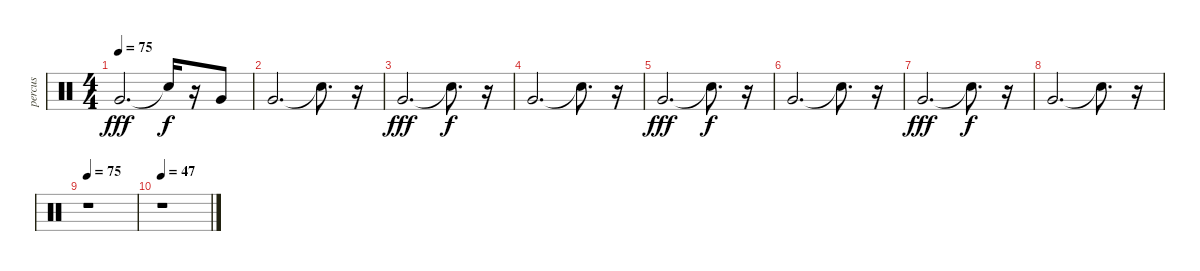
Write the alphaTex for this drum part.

\track ("percus" "percus") {instrument percussion}
\staff {score}
\articulation defaults
\ts (4 4)
\tempo 75
\clef neutral
\ks c "Very Low Tom (hit)".2{d dy fff} "Snare (hit)"{t}.16{dy f}
r.16 "Very Low Tom (hit)".8 |
"Very Low Tom (hit)".2{d} "Snare (hit)"{t}.8{d} r.16 |
"Very Low Tom (hit)".2{d dy fff} "Snare (hit)"{t}.8{d dy f} r.16 |
"Very Low Tom (hit)".2{d} "Snare (hit)"{t}.8{d} r.16 |
"Very Low Tom (hit)".2{d dy fff} "Snare (hit)"{t}.8{d dy f} r.16 |
"Very Low Tom (hit)".2{d} "Snare (hit)"{t}.8{d} r.16 |
"Very Low Tom (hit)".2{d dy fff} "Snare (hit)"{t}.8{d dy f} r.16 |
"Very Low Tom (hit)".2{d} "Snare (hit)"{t}.8{d} r.16 |
\tempo 75
r.1 |
\tempo 47
r.1
